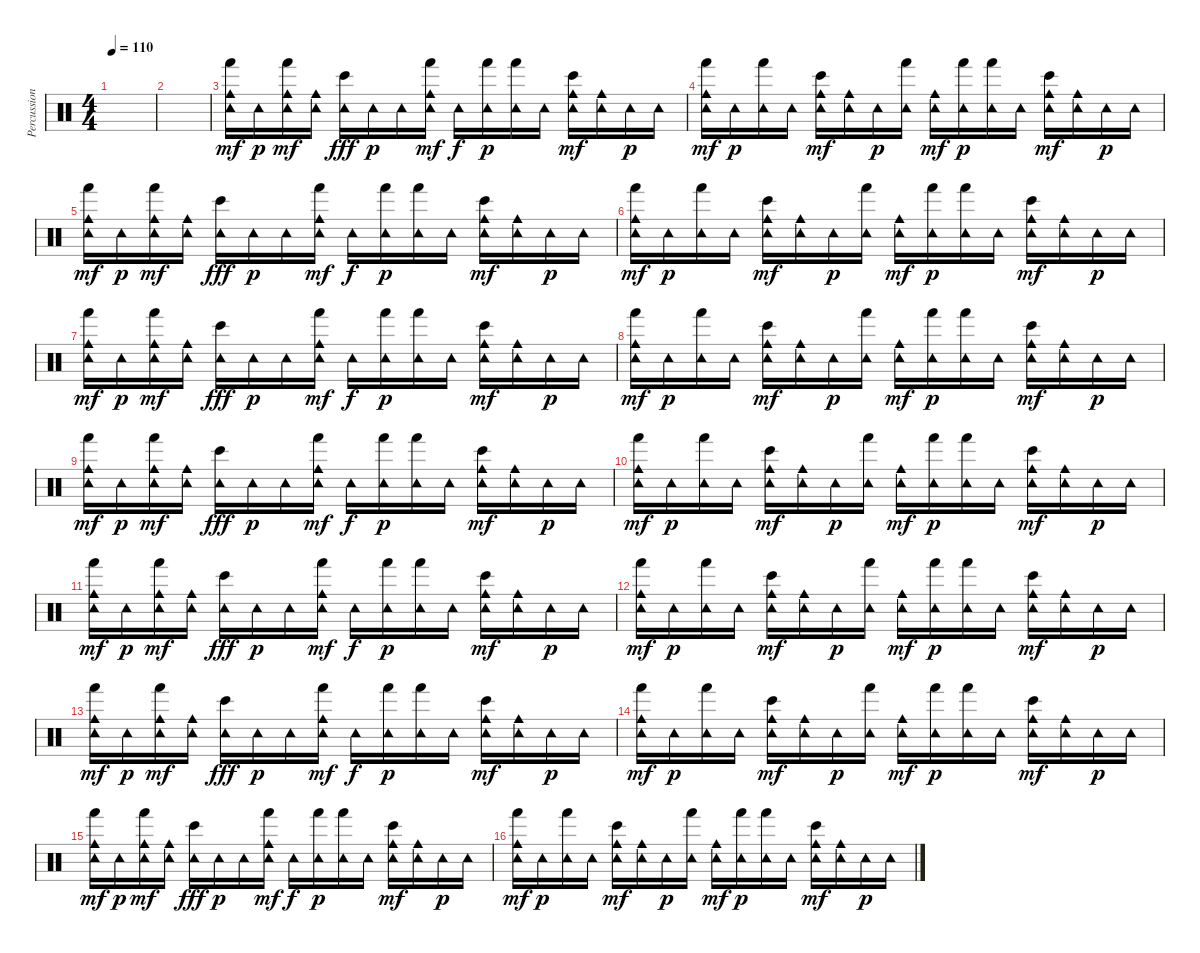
\track ("Percussions" "Percussion") {instrument percussion}
\staff {score}
\articulation defaults
\ts (4 4)
\tempo 110
\clef neutral
\ks c
|
|
("Hand (hit)" "Tambourine (hit)" "Cowbell medium (hit)").16{dy mf} "Tambourine (hit)".16{dy p} ("Hand (hit)" "Tambourine (hit)" "Cowbell medium (hit)").16{dy mf} ("Tambourine (hit)" "Cowbell medium (hit)").16 ("Bongo High (hit)" "Tambourine (hit)").16{dy fff} "Tambourine (hit)".16{dy p} "Tambourine (hit)".16 ("Hand (hit)" "Tambourine (hit)" "Cowbell medium (hit)").16{dy mf} "Tambourine (hit)".16{dy f} ("Hand (hit)" "Tambourine (hit)").16{dy p} ("Hand (hit)" "Tambourine (hit)").16 "Tambourine (hit)".16 ("Bongo High (hit)" "Tambourine (hit)" "Cowbell medium (hit)").16{dy mf} ("Tambourine (hit)" "Cowbell medium (hit)").16 "Tambourine (hit)".16{dy p} "Tambourine (hit)".16 |
("Hand (hit)" "Tambourine (hit)" "Cowbell medium (hit)").16{dy mf} "Tambourine (hit)".16{dy p} ("Hand (hit)" "Tambourine (hit)").16 "Tambourine (hit)".16 ("Bongo High (hit)" "Tambourine (hit)" "Cowbell medium (hit)").16{dy mf} ("Tambourine (hit)" "Cowbell medium (hit)").16 "Tambourine (hit)".16{dy p} ("Hand (hit)" "Tambourine (hit)").16 ("Tambourine (hit)" "Cowbell medium (hit)").16{dy mf} ("Hand (hit)" "Tambourine (hit)").16{dy p} ("Hand (hit)" "Tambourine (hit)").16 "Tambourine (hit)".16 ("Bongo High (hit)" "Tambourine (hit)" "Cowbell medium (hit)").16{dy mf} ("Tambourine (hit)" "Cowbell medium (hit)").16 "Tambourine (hit)".16{dy p} "Tambourine (hit)".16 |
("Hand (hit)" "Tambourine (hit)" "Cowbell medium (hit)").16{dy mf} "Tambourine (hit)".16{dy p} ("Hand (hit)" "Tambourine (hit)" "Cowbell medium (hit)").16{dy mf} ("Tambourine (hit)" "Cowbell medium (hit)").16 ("Bongo High (hit)" "Tambourine (hit)").16{dy fff} "Tambourine (hit)".16{dy p} "Tambourine (hit)".16 ("Hand (hit)" "Tambourine (hit)" "Cowbell medium (hit)").16{dy mf} "Tambourine (hit)".16{dy f} ("Hand (hit)" "Tambourine (hit)").16{dy p} ("Hand (hit)" "Tambourine (hit)").16 "Tambourine (hit)".16 ("Bongo High (hit)" "Tambourine (hit)" "Cowbell medium (hit)").16{dy mf} ("Tambourine (hit)" "Cowbell medium (hit)").16 "Tambourine (hit)".16{dy p} "Tambourine (hit)".16 |
("Hand (hit)" "Tambourine (hit)" "Cowbell medium (hit)").16{dy mf} "Tambourine (hit)".16{dy p} ("Hand (hit)" "Tambourine (hit)").16 "Tambourine (hit)".16 ("Bongo High (hit)" "Tambourine (hit)" "Cowbell medium (hit)").16{dy mf} ("Tambourine (hit)" "Cowbell medium (hit)").16 "Tambourine (hit)".16{dy p} ("Hand (hit)" "Tambourine (hit)").16 ("Tambourine (hit)" "Cowbell medium (hit)").16{dy mf} ("Hand (hit)" "Tambourine (hit)").16{dy p} ("Hand (hit)" "Tambourine (hit)").16 "Tambourine (hit)".16 ("Bongo High (hit)" "Tambourine (hit)" "Cowbell medium (hit)").16{dy mf} ("Tambourine (hit)" "Cowbell medium (hit)").16 "Tambourine (hit)".16{dy p} "Tambourine (hit)".16 |
("Hand (hit)" "Tambourine (hit)" "Cowbell medium (hit)").16{dy mf} "Tambourine (hit)".16{dy p} ("Hand (hit)" "Tambourine (hit)" "Cowbell medium (hit)").16{dy mf} ("Tambourine (hit)" "Cowbell medium (hit)").16 ("Bongo High (hit)" "Tambourine (hit)").16{dy fff} "Tambourine (hit)".16{dy p} "Tambourine (hit)".16 ("Hand (hit)" "Tambourine (hit)" "Cowbell medium (hit)").16{dy mf} "Tambourine (hit)".16{dy f} ("Hand (hit)" "Tambourine (hit)").16{dy p} ("Hand (hit)" "Tambourine (hit)").16 "Tambourine (hit)".16 ("Bongo High (hit)" "Tambourine (hit)" "Cowbell medium (hit)").16{dy mf} ("Tambourine (hit)" "Cowbell medium (hit)").16 "Tambourine (hit)".16{dy p} "Tambourine (hit)".16 |
("Hand (hit)" "Tambourine (hit)" "Cowbell medium (hit)").16{dy mf} "Tambourine (hit)".16{dy p} ("Hand (hit)" "Tambourine (hit)").16 "Tambourine (hit)".16 ("Bongo High (hit)" "Tambourine (hit)" "Cowbell medium (hit)").16{dy mf} ("Tambourine (hit)" "Cowbell medium (hit)").16 "Tambourine (hit)".16{dy p} ("Hand (hit)" "Tambourine (hit)").16 ("Tambourine (hit)" "Cowbell medium (hit)").16{dy mf} ("Hand (hit)" "Tambourine (hit)").16{dy p} ("Hand (hit)" "Tambourine (hit)").16 "Tambourine (hit)".16 ("Bongo High (hit)" "Tambourine (hit)" "Cowbell medium (hit)").16{dy mf} ("Tambourine (hit)" "Cowbell medium (hit)").16 "Tambourine (hit)".16{dy p} "Tambourine (hit)".16 |
("Hand (hit)" "Tambourine (hit)" "Cowbell medium (hit)").16{dy mf} "Tambourine (hit)".16{dy p} ("Hand (hit)" "Tambourine (hit)" "Cowbell medium (hit)").16{dy mf} ("Tambourine (hit)" "Cowbell medium (hit)").16 ("Bongo High (hit)" "Tambourine (hit)").16{dy fff} "Tambourine (hit)".16{dy p} "Tambourine (hit)".16 ("Hand (hit)" "Tambourine (hit)" "Cowbell medium (hit)").16{dy mf} "Tambourine (hit)".16{dy f} ("Hand (hit)" "Tambourine (hit)").16{dy p} ("Hand (hit)" "Tambourine (hit)").16 "Tambourine (hit)".16 ("Bongo High (hit)" "Tambourine (hit)" "Cowbell medium (hit)").16{dy mf} ("Tambourine (hit)" "Cowbell medium (hit)").16 "Tambourine (hit)".16{dy p} "Tambourine (hit)".16 |
("Hand (hit)" "Tambourine (hit)" "Cowbell medium (hit)").16{dy mf} "Tambourine (hit)".16{dy p} ("Hand (hit)" "Tambourine (hit)").16 "Tambourine (hit)".16 ("Bongo High (hit)" "Tambourine (hit)" "Cowbell medium (hit)").16{dy mf} ("Tambourine (hit)" "Cowbell medium (hit)").16 "Tambourine (hit)".16{dy p} ("Hand (hit)" "Tambourine (hit)").16 ("Tambourine (hit)" "Cowbell medium (hit)").16{dy mf} ("Hand (hit)" "Tambourine (hit)").16{dy p} ("Hand (hit)" "Tambourine (hit)").16 "Tambourine (hit)".16 ("Bongo High (hit)" "Tambourine (hit)" "Cowbell medium (hit)").16{dy mf} ("Tambourine (hit)" "Cowbell medium (hit)").16 "Tambourine (hit)".16{dy p} "Tambourine (hit)".16 |
("Hand (hit)" "Tambourine (hit)" "Cowbell medium (hit)").16{dy mf} "Tambourine (hit)".16{dy p} ("Hand (hit)" "Tambourine (hit)" "Cowbell medium (hit)").16{dy mf} ("Tambourine (hit)" "Cowbell medium (hit)").16 ("Bongo High (hit)" "Tambourine (hit)").16{dy fff} "Tambourine (hit)".16{dy p} "Tambourine (hit)".16 ("Hand (hit)" "Tambourine (hit)" "Cowbell medium (hit)").16{dy mf} "Tambourine (hit)".16{dy f} ("Hand (hit)" "Tambourine (hit)").16{dy p} ("Hand (hit)" "Tambourine (hit)").16 "Tambourine (hit)".16 ("Bongo High (hit)" "Tambourine (hit)" "Cowbell medium (hit)").16{dy mf} ("Tambourine (hit)" "Cowbell medium (hit)").16 "Tambourine (hit)".16{dy p} "Tambourine (hit)".16 |
("Hand (hit)" "Tambourine (hit)" "Cowbell medium (hit)").16{dy mf} "Tambourine (hit)".16{dy p} ("Hand (hit)" "Tambourine (hit)").16 "Tambourine (hit)".16 ("Bongo High (hit)" "Tambourine (hit)" "Cowbell medium (hit)").16{dy mf} ("Tambourine (hit)" "Cowbell medium (hit)").16 "Tambourine (hit)".16{dy p} ("Hand (hit)" "Tambourine (hit)").16 ("Tambourine (hit)" "Cowbell medium (hit)").16{dy mf} ("Hand (hit)" "Tambourine (hit)").16{dy p} ("Hand (hit)" "Tambourine (hit)").16 "Tambourine (hit)".16 ("Bongo High (hit)" "Tambourine (hit)" "Cowbell medium (hit)").16{dy mf} ("Tambourine (hit)" "Cowbell medium (hit)").16 "Tambourine (hit)".16{dy p} "Tambourine (hit)".16 |
("Hand (hit)" "Tambourine (hit)" "Cowbell medium (hit)").16{dy mf} "Tambourine (hit)".16{dy p} ("Hand (hit)" "Tambourine (hit)" "Cowbell medium (hit)").16{dy mf} ("Tambourine (hit)" "Cowbell medium (hit)").16 ("Bongo High (hit)" "Tambourine (hit)").16{dy fff} "Tambourine (hit)".16{dy p} "Tambourine (hit)".16 ("Hand (hit)" "Tambourine (hit)" "Cowbell medium (hit)").16{dy mf} "Tambourine (hit)".16{dy f} ("Hand (hit)" "Tambourine (hit)").16{dy p} ("Hand (hit)" "Tambourine (hit)").16 "Tambourine (hit)".16 ("Bongo High (hit)" "Tambourine (hit)" "Cowbell medium (hit)").16{dy mf} ("Tambourine (hit)" "Cowbell medium (hit)").16 "Tambourine (hit)".16{dy p} "Tambourine (hit)".16 |
("Hand (hit)" "Tambourine (hit)" "Cowbell medium (hit)").16{dy mf} "Tambourine (hit)".16{dy p} ("Hand (hit)" "Tambourine (hit)").16 "Tambourine (hit)".16 ("Bongo High (hit)" "Tambourine (hit)" "Cowbell medium (hit)").16{dy mf} ("Tambourine (hit)" "Cowbell medium (hit)").16 "Tambourine (hit)".16{dy p} ("Hand (hit)" "Tambourine (hit)").16 ("Tambourine (hit)" "Cowbell medium (hit)").16{dy mf} ("Hand (hit)" "Tambourine (hit)").16{dy p} ("Hand (hit)" "Tambourine (hit)").16 "Tambourine (hit)".16 ("Bongo High (hit)" "Tambourine (hit)" "Cowbell medium (hit)").16{dy mf} ("Tambourine (hit)" "Cowbell medium (hit)").16 "Tambourine (hit)".16{dy p} "Tambourine (hit)".16 |
("Hand (hit)" "Tambourine (hit)" "Cowbell medium (hit)").16{dy mf} "Tambourine (hit)".16{dy p} ("Hand (hit)" "Tambourine (hit)" "Cowbell medium (hit)").16{dy mf} ("Tambourine (hit)" "Cowbell medium (hit)").16 ("Bongo High (hit)" "Tambourine (hit)").16{dy fff} "Tambourine (hit)".16{dy p} "Tambourine (hit)".16 ("Hand (hit)" "Tambourine (hit)" "Cowbell medium (hit)").16{dy mf} "Tambourine (hit)".16{dy f} ("Hand (hit)" "Tambourine (hit)").16{dy p} ("Hand (hit)" "Tambourine (hit)").16 "Tambourine (hit)".16 ("Bongo High (hit)" "Tambourine (hit)" "Cowbell medium (hit)").16{dy mf} ("Tambourine (hit)" "Cowbell medium (hit)").16 "Tambourine (hit)".16{dy p} "Tambourine (hit)".16 |
("Hand (hit)" "Tambourine (hit)" "Cowbell medium (hit)").16{dy mf} "Tambourine (hit)".16{dy p} ("Hand (hit)" "Tambourine (hit)").16 "Tambourine (hit)".16 ("Bongo High (hit)" "Tambourine (hit)" "Cowbell medium (hit)").16{dy mf} ("Tambourine (hit)" "Cowbell medium (hit)").16 "Tambourine (hit)".16{dy p} ("Hand (hit)" "Tambourine (hit)").16 ("Tambourine (hit)" "Cowbell medium (hit)").16{dy mf} ("Hand (hit)" "Tambourine (hit)").16{dy p} ("Hand (hit)" "Tambourine (hit)").16 "Tambourine (hit)".16 ("Bongo High (hit)" "Tambourine (hit)" "Cowbell medium (hit)").16{dy mf} ("Tambourine (hit)" "Cowbell medium (hit)").16 "Tambourine (hit)".16{dy p} "Tambourine (hit)".16
